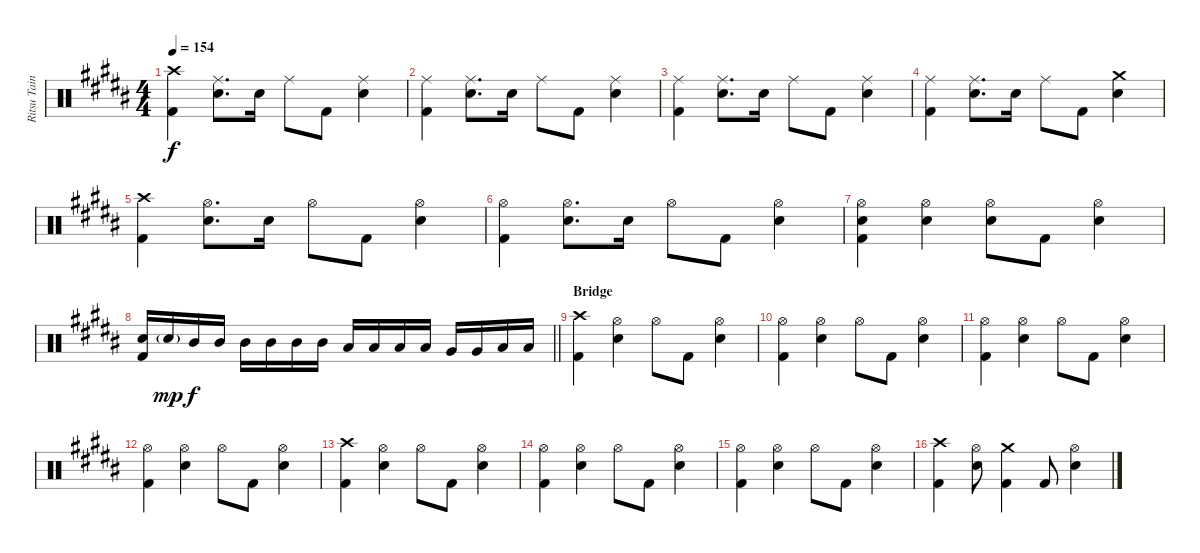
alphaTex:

\track ("Ritsu Tainaka" "Ritsu Tain") {instrument percussion}
\staff {score}
\articulation defaults
\ts (4 4)
\tempo 154
\clef neutral
\ks b
("Crash high (hit)" "Kick (hit) 2").4{dy f} ("Ride (middle)" "Snare (hit) 2").8{d} "Snare (hit) 2".16 "Ride (middle)".8 "Kick (hit) 2".8 ("Ride (middle)" "Snare (hit) 2").4 |
("Ride (middle)" "Kick (hit) 2").4 ("Ride (middle)" "Snare (hit) 2").8{d} "Snare (hit) 2".16 "Ride (middle)".8 "Kick (hit) 2".8 ("Ride (middle)" "Snare (hit) 2").4 |
("Ride (middle)" "Kick (hit) 2").4 ("Ride (middle)" "Snare (hit) 2").8{d} "Snare (hit) 2".16 "Ride (middle)".8 "Kick (hit) 2".8 ("Ride (middle)" "Snare (hit) 2").4 |
("Ride (middle)" "Kick (hit) 2").4 ("Ride (middle)" "Snare (hit) 2").8{d} "Snare (hit) 2".16 "Ride (middle)".8 "Kick (hit) 2".8 ("Crash medium (hit)" "Snare (hit) 2").4 |
("Crash high (hit)" "Kick (hit) 2").4 ("Hi-Hat (open)" "Snare (hit) 2").8{d} "Snare (hit) 2".16 "Hi-Hat (open)".8 "Kick (hit) 2".8 ("Hi-Hat (open)" "Snare (hit) 2").4 |
("Hi-Hat (open)" "Kick (hit) 2").4 ("Hi-Hat (open)" "Snare (hit) 2").8{d} "Snare (hit) 2".16 "Hi-Hat (open)".8 "Kick (hit) 2".8 ("Hi-Hat (open)" "Snare (hit) 2").4 |
("Hi-Hat (open)" "Snare (hit) 2" "Kick (hit) 2").4 ("Hi-Hat (open)" "Snare (hit) 2").4 ("Hi-Hat (open)" "Snare (hit) 2").8 "Kick (hit) 2".8 ("Hi-Hat (open)" "Snare (hit) 2").4 |
\barLineRight lightlight
("Snare (hit) 2" "Kick (hit) 2").16 "Snare (hit) 2"{g}.16{dy mp} "Mid Tom (hit)".16{dy f} "Mid Tom (hit)".16 "Mid Tom (hit)".16 "Mid Tom (hit)".16 "Mid Tom (hit)".16 "Mid Tom (hit)".16 "Low Tom (hit)".16 "Low Tom (hit)".16 "Low Tom (hit)".16 "Low Tom (hit)".16 "Very Low Tom (hit)".16 "Very Low Tom (hit)".16 "Low Floor Tom (hit)".16 "Low Floor Tom (hit)".16 |
\section ("" "Bridge")
("Crash high (hit)" "Kick (hit) 2").4 ("Hi-Hat (open)" "Snare (hit) 2").4 "Hi-Hat (open)".8 "Kick (hit) 2".8 ("Hi-Hat (open)" "Snare (hit) 2").4 |
("Hi-Hat (open)" "Kick (hit) 2").4 ("Hi-Hat (open)" "Snare (hit) 2").4 "Hi-Hat (open)".8 "Kick (hit) 2".8 ("Hi-Hat (open)" "Snare (hit) 2").4 |
("Hi-Hat (open)" "Kick (hit) 2").4 ("Hi-Hat (open)" "Snare (hit) 2").4 "Hi-Hat (open)".8 "Kick (hit) 2".8 ("Hi-Hat (open)" "Snare (hit) 2").4 |
("Hi-Hat (open)" "Kick (hit) 2").4 ("Hi-Hat (open)" "Snare (hit) 2").4 "Hi-Hat (open)".8 "Kick (hit) 2".8 ("Hi-Hat (open)" "Snare (hit) 2").4 |
("Crash high (hit)" "Kick (hit) 2").4 ("Hi-Hat (open)" "Snare (hit) 2").4 "Hi-Hat (open)".8 "Kick (hit) 2".8 ("Hi-Hat (open)" "Snare (hit) 2").4 |
("Hi-Hat (open)" "Kick (hit) 2").4 ("Hi-Hat (open)" "Snare (hit) 2").4 "Hi-Hat (open)".8 "Kick (hit) 2".8 ("Hi-Hat (open)" "Snare (hit) 2").4 |
("Hi-Hat (open)" "Kick (hit) 2").4 ("Hi-Hat (open)" "Snare (hit) 2").4 "Hi-Hat (open)".8 "Kick (hit) 2".8 ("Hi-Hat (open)" "Snare (hit) 2").4 |
("Crash high (hit)" "Kick (hit) 2").4 ("Hi-Hat (open)" "Snare (hit) 2").8 ("Crash medium (hit)" "Kick (hit) 2").4 "Kick (hit) 2".8 ("Hi-Hat (open)" "Snare (hit) 2").4
